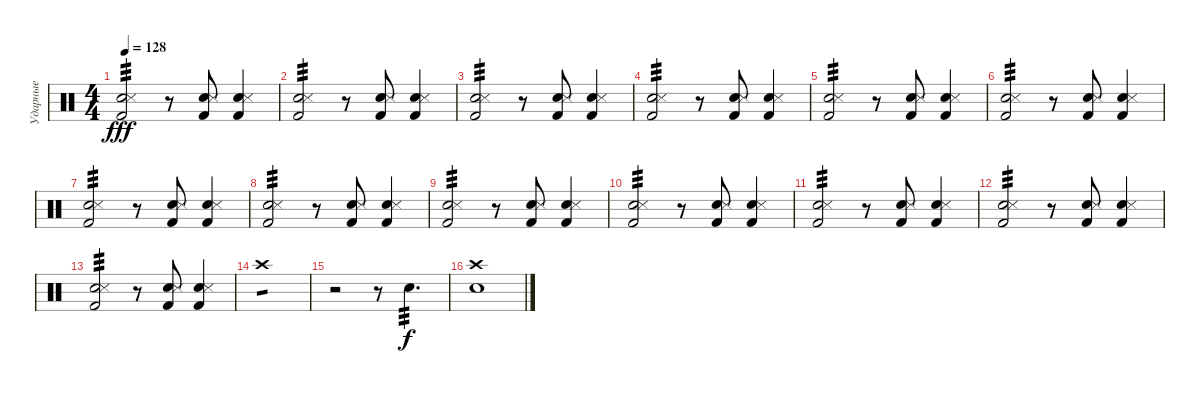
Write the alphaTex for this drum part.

\track ("Ударные" "Ударные") {instrument percussion}
\staff {score}
\articulation defaults
\ts (4 4)
\tempo 128
\clef neutral
\ks c
("Electric Snare (hit)" "Snare (side stick) 3" "Kick (hit) 2").2{tp 3 dy fff} r.8 ("Electric Snare (hit)" "Snare (side stick) 3" "Kick (hit) 2").8 ("Electric Snare (hit)" "Snare (side stick) 3" "Kick (hit) 2").4 |
("Electric Snare (hit)" "Snare (side stick) 3" "Kick (hit) 2").2{tp 3} r.8 ("Electric Snare (hit)" "Snare (side stick) 3" "Kick (hit) 2").8 ("Electric Snare (hit)" "Snare (side stick) 3" "Kick (hit) 2").4 |
("Electric Snare (hit)" "Snare (side stick) 3" "Kick (hit) 2").2{tp 3} r.8 ("Electric Snare (hit)" "Snare (side stick) 3" "Kick (hit) 2").8 ("Electric Snare (hit)" "Snare (side stick) 3" "Kick (hit) 2").4 |
("Electric Snare (hit)" "Snare (side stick) 3" "Kick (hit) 2").2{tp 3} r.8 ("Electric Snare (hit)" "Snare (side stick) 3" "Kick (hit) 2").8 ("Electric Snare (hit)" "Snare (side stick) 3" "Kick (hit) 2").4 |
("Electric Snare (hit)" "Snare (side stick) 3" "Kick (hit) 2").2{tp 3} r.8 ("Electric Snare (hit)" "Snare (side stick) 3" "Kick (hit) 2").8 ("Electric Snare (hit)" "Snare (side stick) 3" "Kick (hit) 2").4 |
("Electric Snare (hit)" "Snare (side stick) 3" "Kick (hit) 2").2{tp 3} r.8 ("Electric Snare (hit)" "Snare (side stick) 3" "Kick (hit) 2").8 ("Electric Snare (hit)" "Snare (side stick) 3" "Kick (hit) 2").4 |
("Electric Snare (hit)" "Snare (side stick) 3" "Kick (hit) 2").2{tp 3} r.8 ("Electric Snare (hit)" "Snare (side stick) 3" "Kick (hit) 2").8 ("Electric Snare (hit)" "Snare (side stick) 3" "Kick (hit) 2").4 |
("Electric Snare (hit)" "Snare (side stick) 3" "Kick (hit) 2").2{tp 3} r.8 ("Electric Snare (hit)" "Snare (side stick) 3" "Kick (hit) 2").8 ("Electric Snare (hit)" "Snare (side stick) 3" "Kick (hit) 2").4 |
("Electric Snare (hit)" "Snare (side stick) 3" "Kick (hit) 2").2{tp 3} r.8 ("Electric Snare (hit)" "Snare (side stick) 3" "Kick (hit) 2").8 ("Electric Snare (hit)" "Snare (side stick) 3" "Kick (hit) 2").4 |
("Electric Snare (hit)" "Snare (side stick) 3" "Kick (hit) 2").2{tp 3} r.8 ("Electric Snare (hit)" "Snare (side stick) 3" "Kick (hit) 2").8 ("Electric Snare (hit)" "Snare (side stick) 3" "Kick (hit) 2").4 |
("Electric Snare (hit)" "Snare (side stick) 3" "Kick (hit) 2").2{tp 3} r.8 ("Electric Snare (hit)" "Snare (side stick) 3" "Kick (hit) 2").8 ("Electric Snare (hit)" "Snare (side stick) 3" "Kick (hit) 2").4 |
("Electric Snare (hit)" "Snare (side stick) 3" "Kick (hit) 2").2{tp 3} r.8 ("Electric Snare (hit)" "Snare (side stick) 3" "Kick (hit) 2").8 ("Electric Snare (hit)" "Snare (side stick) 3" "Kick (hit) 2").4 |
("Electric Snare (hit)" "Snare (side stick) 3" "Kick (hit) 2").2{tp 3} r.8 ("Electric Snare (hit)" "Snare (side stick) 3" "Kick (hit) 2").8 ("Electric Snare (hit)" "Snare (side stick) 3" "Kick (hit) 2").4 |
"Crash high (hit)".1{tp 1} |
r.2 r.8 "Electric Snare (hit)".4{d tp 3 dy f} |
("Crash high (hit)" "Electric Snare (hit)").1
